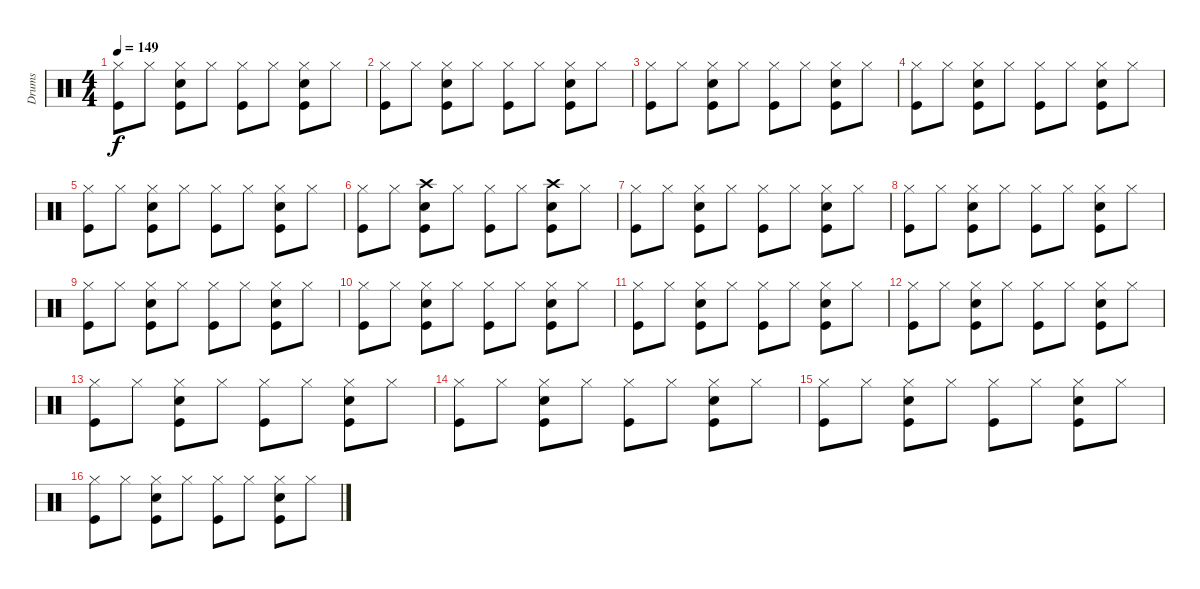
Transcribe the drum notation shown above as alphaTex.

\track ("Drums" "Drums") {instrument percussion}
\staff {score}
\articulation defaults
\ts (4 4)
\tempo 149
\clef neutral
\ks c
("Hi-Hat (closed)" "Kick (hit)").8{dy f} "Hi-Hat (closed)".8 ("Hi-Hat (closed)" "Kick (hit)" "Snare (hit) 2").8 "Hi-Hat (closed)".8 ("Hi-Hat (closed)" "Kick (hit)").8 "Hi-Hat (closed)".8 ("Hi-Hat (closed)" "Kick (hit)" "Snare (hit) 2").8 "Hi-Hat (closed)".8 |
("Hi-Hat (closed)" "Kick (hit)").8 "Hi-Hat (closed)".8 ("Hi-Hat (closed)" "Kick (hit)" "Snare (hit) 2").8 "Hi-Hat (closed)".8 ("Hi-Hat (closed)" "Kick (hit)").8 "Hi-Hat (closed)".8 ("Hi-Hat (closed)" "Kick (hit)" "Snare (hit) 2").8 "Hi-Hat (closed)".8 |
("Hi-Hat (closed)" "Kick (hit)").8 "Hi-Hat (closed)".8 ("Hi-Hat (closed)" "Kick (hit)" "Snare (hit) 2").8 "Hi-Hat (closed)".8 ("Hi-Hat (closed)" "Kick (hit)").8 "Hi-Hat (closed)".8 ("Hi-Hat (closed)" "Kick (hit)" "Snare (hit) 2").8 "Hi-Hat (closed)".8 |
("Hi-Hat (closed)" "Kick (hit)").8 "Hi-Hat (closed)".8 ("Hi-Hat (closed)" "Kick (hit)" "Snare (hit) 2").8 "Hi-Hat (closed)".8 ("Hi-Hat (closed)" "Kick (hit)").8 "Hi-Hat (closed)".8 ("Hi-Hat (closed)" "Kick (hit)" "Snare (hit) 2").8 "Hi-Hat (closed)".8 |
("Hi-Hat (closed)" "Kick (hit)").8 "Hi-Hat (closed)".8 ("Hi-Hat (closed)" "Kick (hit)" "Snare (hit) 2").8 "Hi-Hat (closed)".8 ("Hi-Hat (closed)" "Kick (hit)").8 "Hi-Hat (closed)".8 ("Hi-Hat (closed)" "Kick (hit)" "Snare (hit) 2").8 "Hi-Hat (closed)".8 |
("Hi-Hat (closed)" "Kick (hit)").8 "Hi-Hat (closed)".8 ("Crash high (hit)" "Kick (hit)" "Snare (hit) 2").8 "Hi-Hat (closed)".8 ("Hi-Hat (closed)" "Kick (hit)").8 "Hi-Hat (closed)".8 ("Crash high (hit)" "Snare (hit) 2" "Kick (hit)").8 "Hi-Hat (closed)".8 |
("Hi-Hat (closed)" "Kick (hit)").8 "Hi-Hat (closed)".8 ("Hi-Hat (closed)" "Kick (hit)" "Snare (hit) 2").8 "Hi-Hat (closed)".8 ("Hi-Hat (closed)" "Kick (hit)").8 "Hi-Hat (closed)".8 ("Hi-Hat (closed)" "Kick (hit)" "Snare (hit) 2").8 "Hi-Hat (closed)".8 |
("Hi-Hat (closed)" "Kick (hit)").8 "Hi-Hat (closed)".8 ("Hi-Hat (closed)" "Kick (hit)" "Snare (hit) 2").8 "Hi-Hat (closed)".8 ("Hi-Hat (closed)" "Kick (hit)").8 "Hi-Hat (closed)".8 ("Hi-Hat (closed)" "Kick (hit)" "Snare (hit) 2").8 "Hi-Hat (closed)".8 |
("Hi-Hat (closed)" "Kick (hit)").8 "Hi-Hat (closed)".8 ("Hi-Hat (closed)" "Kick (hit)" "Snare (hit) 2").8 "Hi-Hat (closed)".8 ("Hi-Hat (closed)" "Kick (hit)").8 "Hi-Hat (closed)".8 ("Hi-Hat (closed)" "Kick (hit)" "Snare (hit) 2").8 "Hi-Hat (closed)".8 |
("Hi-Hat (closed)" "Kick (hit)").8 "Hi-Hat (closed)".8 ("Hi-Hat (closed)" "Kick (hit)" "Snare (hit) 2").8 "Hi-Hat (closed)".8 ("Hi-Hat (closed)" "Kick (hit)").8 "Hi-Hat (closed)".8 ("Hi-Hat (closed)" "Kick (hit)" "Snare (hit) 2").8 "Hi-Hat (closed)".8 |
("Hi-Hat (closed)" "Kick (hit)").8 "Hi-Hat (closed)".8 ("Hi-Hat (closed)" "Kick (hit)" "Snare (hit) 2").8 "Hi-Hat (closed)".8 ("Hi-Hat (closed)" "Kick (hit)").8 "Hi-Hat (closed)".8 ("Hi-Hat (closed)" "Kick (hit)" "Snare (hit) 2").8 "Hi-Hat (closed)".8 |
("Hi-Hat (closed)" "Kick (hit)").8 "Hi-Hat (closed)".8 ("Hi-Hat (closed)" "Kick (hit)" "Snare (hit) 2").8 "Hi-Hat (closed)".8 ("Hi-Hat (closed)" "Kick (hit)").8 "Hi-Hat (closed)".8 ("Hi-Hat (closed)" "Kick (hit)" "Snare (hit) 2").8 "Hi-Hat (closed)".8 |
("Hi-Hat (closed)" "Kick (hit)").8 "Hi-Hat (closed)".8 ("Hi-Hat (closed)" "Kick (hit)" "Snare (hit) 2").8 "Hi-Hat (closed)".8 ("Hi-Hat (closed)" "Kick (hit)").8 "Hi-Hat (closed)".8 ("Hi-Hat (closed)" "Kick (hit)" "Snare (hit) 2").8 "Hi-Hat (closed)".8 |
("Hi-Hat (closed)" "Kick (hit)").8 "Hi-Hat (closed)".8 ("Hi-Hat (closed)" "Kick (hit)" "Snare (hit) 2").8 "Hi-Hat (closed)".8 ("Hi-Hat (closed)" "Kick (hit)").8 "Hi-Hat (closed)".8 ("Hi-Hat (closed)" "Kick (hit)" "Snare (hit) 2").8 "Hi-Hat (closed)".8 |
("Hi-Hat (closed)" "Kick (hit)").8 "Hi-Hat (closed)".8 ("Hi-Hat (closed)" "Kick (hit)" "Snare (hit) 2").8 "Hi-Hat (closed)".8 ("Hi-Hat (closed)" "Kick (hit)").8 "Hi-Hat (closed)".8 ("Hi-Hat (closed)" "Kick (hit)" "Snare (hit) 2").8 "Hi-Hat (closed)".8 |
("Hi-Hat (closed)" "Kick (hit)").8 "Hi-Hat (closed)".8 ("Hi-Hat (closed)" "Kick (hit)" "Snare (hit) 2").8 "Hi-Hat (closed)".8 ("Hi-Hat (closed)" "Kick (hit)").8 "Hi-Hat (closed)".8 ("Hi-Hat (closed)" "Kick (hit)" "Snare (hit) 2").8 "Hi-Hat (closed)".8
